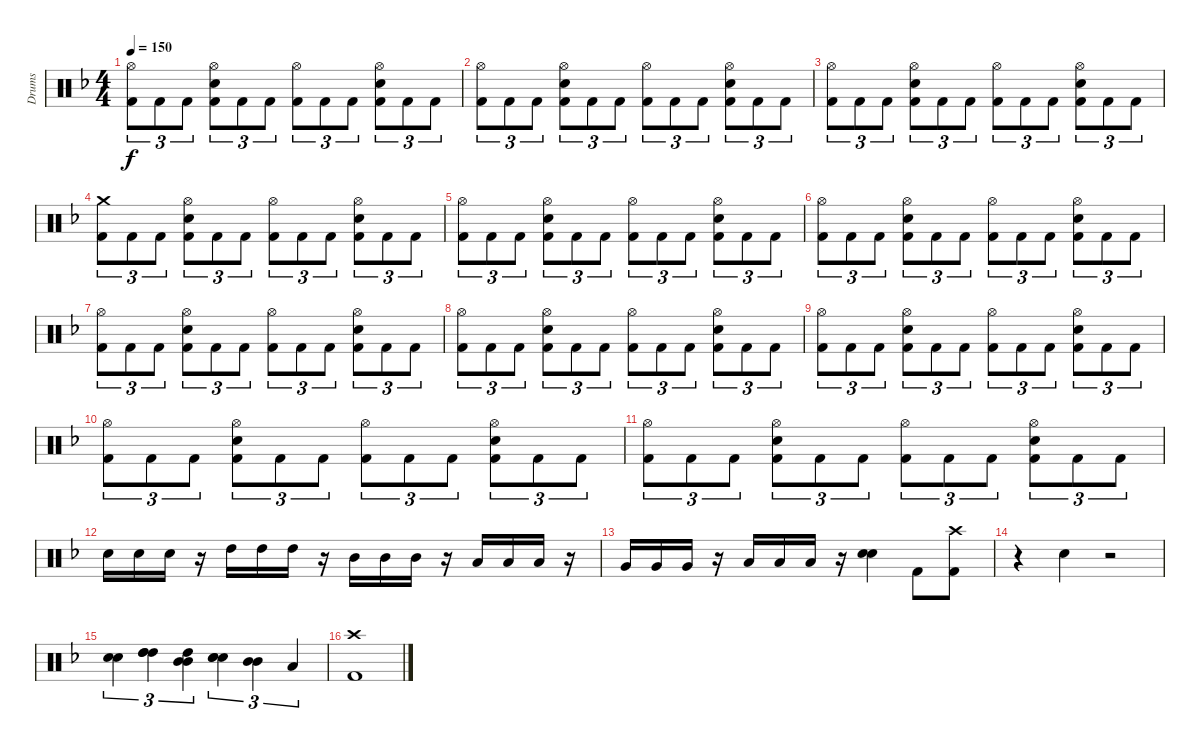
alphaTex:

\track ("Drums" "Drums") {instrument percussion}
\staff {score}
\articulation defaults
\ts (4 4)
\tempo 150
\clef neutral
\ks f
("Hi-Hat (open)" "Kick (hit) 2").8{tu (3 2) dy f} "Kick (hit) 2".8{tu (3 2)} "Kick (hit) 2".8{tu (3 2)} ("Snare (hit) 2" "Hi-Hat (open)" "Kick (hit) 2").8{tu (3 2)} "Kick (hit) 2".8{tu (3 2)} "Kick (hit) 2".8{tu (3 2)} ("Hi-Hat (open)" "Kick (hit) 2").8{tu (3 2)} "Kick (hit) 2".8{tu (3 2)} "Kick (hit) 2".8{tu (3 2)} ("Snare (hit) 2" "Hi-Hat (open)" "Kick (hit) 2").8{tu (3 2)} "Kick (hit) 2".8{tu (3 2)} "Kick (hit) 2".8{tu (3 2)} |
("Hi-Hat (open)" "Kick (hit) 2").8{tu (3 2)} "Kick (hit) 2".8{tu (3 2)} "Kick (hit) 2".8{tu (3 2)} ("Snare (hit) 2" "Hi-Hat (open)" "Kick (hit) 2").8{tu (3 2)} "Kick (hit) 2".8{tu (3 2)} "Kick (hit) 2".8{tu (3 2)} ("Hi-Hat (open)" "Kick (hit) 2").8{tu (3 2)} "Kick (hit) 2".8{tu (3 2)} "Kick (hit) 2".8{tu (3 2)} ("Snare (hit) 2" "Hi-Hat (open)" "Kick (hit) 2").8{tu (3 2)} "Kick (hit) 2".8{tu (3 2)} "Kick (hit) 2".8{tu (3 2)} |
("Hi-Hat (open)" "Kick (hit) 2").8{tu (3 2)} "Kick (hit) 2".8{tu (3 2)} "Kick (hit) 2".8{tu (3 2)} ("Snare (hit) 2" "Hi-Hat (open)" "Kick (hit) 2").8{tu (3 2)} "Kick (hit) 2".8{tu (3 2)} "Kick (hit) 2".8{tu (3 2)} ("Hi-Hat (open)" "Kick (hit) 2").8{tu (3 2)} "Kick (hit) 2".8{tu (3 2)} "Kick (hit) 2".8{tu (3 2)} ("Snare (hit) 2" "Hi-Hat (open)" "Kick (hit) 2").8{tu (3 2)} "Kick (hit) 2".8{tu (3 2)} "Kick (hit) 2".8{tu (3 2)} |
("Crash medium (hit)" "Kick (hit) 2").8{tu (3 2)} "Kick (hit) 2".8{tu (3 2)} "Kick (hit) 2".8{tu (3 2)} ("Snare (hit) 2" "Hi-Hat (open)" "Kick (hit) 2").8{tu (3 2)} "Kick (hit) 2".8{tu (3 2)} "Kick (hit) 2".8{tu (3 2)} ("Hi-Hat (open)" "Kick (hit) 2").8{tu (3 2)} "Kick (hit) 2".8{tu (3 2)} "Kick (hit) 2".8{tu (3 2)} ("Snare (hit) 2" "Hi-Hat (open)" "Kick (hit) 2").8{tu (3 2)} "Kick (hit) 2".8{tu (3 2)} "Kick (hit) 2".8{tu (3 2)} |
("Hi-Hat (open)" "Kick (hit) 2").8{tu (3 2)} "Kick (hit) 2".8{tu (3 2)} "Kick (hit) 2".8{tu (3 2)} ("Snare (hit) 2" "Hi-Hat (open)" "Kick (hit) 2").8{tu (3 2)} "Kick (hit) 2".8{tu (3 2)} "Kick (hit) 2".8{tu (3 2)} ("Hi-Hat (open)" "Kick (hit) 2").8{tu (3 2)} "Kick (hit) 2".8{tu (3 2)} "Kick (hit) 2".8{tu (3 2)} ("Snare (hit) 2" "Hi-Hat (open)" "Kick (hit) 2").8{tu (3 2)} "Kick (hit) 2".8{tu (3 2)} "Kick (hit) 2".8{tu (3 2)} |
("Hi-Hat (open)" "Kick (hit) 2").8{tu (3 2)} "Kick (hit) 2".8{tu (3 2)} "Kick (hit) 2".8{tu (3 2)} ("Snare (hit) 2" "Hi-Hat (open)" "Kick (hit) 2").8{tu (3 2)} "Kick (hit) 2".8{tu (3 2)} "Kick (hit) 2".8{tu (3 2)} ("Hi-Hat (open)" "Kick (hit) 2").8{tu (3 2)} "Kick (hit) 2".8{tu (3 2)} "Kick (hit) 2".8{tu (3 2)} ("Snare (hit) 2" "Hi-Hat (open)" "Kick (hit) 2").8{tu (3 2)} "Kick (hit) 2".8{tu (3 2)} "Kick (hit) 2".8{tu (3 2)} |
("Hi-Hat (open)" "Kick (hit) 2").8{tu (3 2)} "Kick (hit) 2".8{tu (3 2)} "Kick (hit) 2".8{tu (3 2)} ("Snare (hit) 2" "Hi-Hat (open)" "Kick (hit) 2").8{tu (3 2)} "Kick (hit) 2".8{tu (3 2)} "Kick (hit) 2".8{tu (3 2)} ("Hi-Hat (open)" "Kick (hit) 2").8{tu (3 2)} "Kick (hit) 2".8{tu (3 2)} "Kick (hit) 2".8{tu (3 2)} ("Snare (hit) 2" "Hi-Hat (open)" "Kick (hit) 2").8{tu (3 2)} "Kick (hit) 2".8{tu (3 2)} "Kick (hit) 2".8{tu (3 2)} |
("Hi-Hat (open)" "Kick (hit) 2").8{tu (3 2)} "Kick (hit) 2".8{tu (3 2)} "Kick (hit) 2".8{tu (3 2)} ("Snare (hit) 2" "Hi-Hat (open)" "Kick (hit) 2").8{tu (3 2)} "Kick (hit) 2".8{tu (3 2)} "Kick (hit) 2".8{tu (3 2)} ("Hi-Hat (open)" "Kick (hit) 2").8{tu (3 2)} "Kick (hit) 2".8{tu (3 2)} "Kick (hit) 2".8{tu (3 2)} ("Snare (hit) 2" "Hi-Hat (open)" "Kick (hit) 2").8{tu (3 2)} "Kick (hit) 2".8{tu (3 2)} "Kick (hit) 2".8{tu (3 2)} |
("Hi-Hat (open)" "Kick (hit) 2").8{tu (3 2)} "Kick (hit) 2".8{tu (3 2)} "Kick (hit) 2".8{tu (3 2)} ("Snare (hit) 2" "Hi-Hat (open)" "Kick (hit) 2").8{tu (3 2)} "Kick (hit) 2".8{tu (3 2)} "Kick (hit) 2".8{tu (3 2)} ("Hi-Hat (open)" "Kick (hit) 2").8{tu (3 2)} "Kick (hit) 2".8{tu (3 2)} "Kick (hit) 2".8{tu (3 2)} ("Snare (hit) 2" "Hi-Hat (open)" "Kick (hit) 2").8{tu (3 2)} "Kick (hit) 2".8{tu (3 2)} "Kick (hit) 2".8{tu (3 2)} |
("Hi-Hat (open)" "Kick (hit) 2").8{tu (3 2)} "Kick (hit) 2".8{tu (3 2)} "Kick (hit) 2".8{tu (3 2)} ("Snare (hit) 2" "Hi-Hat (open)" "Kick (hit) 2").8{tu (3 2)} "Kick (hit) 2".8{tu (3 2)} "Kick (hit) 2".8{tu (3 2)} ("Hi-Hat (open)" "Kick (hit) 2").8{tu (3 2)} "Kick (hit) 2".8{tu (3 2)} "Kick (hit) 2".8{tu (3 2)} ("Snare (hit) 2" "Hi-Hat (open)" "Kick (hit) 2").8{tu (3 2)} "Kick (hit) 2".8{tu (3 2)} "Kick (hit) 2".8{tu (3 2)} |
("Hi-Hat (open)" "Kick (hit) 2").8{tu (3 2)} "Kick (hit) 2".8{tu (3 2)} "Kick (hit) 2".8{tu (3 2)} ("Snare (hit) 2" "Hi-Hat (open)" "Kick (hit) 2").8{tu (3 2)} "Kick (hit) 2".8{tu (3 2)} "Kick (hit) 2".8{tu (3 2)} ("Hi-Hat (open)" "Kick (hit) 2").8{tu (3 2)} "Kick (hit) 2".8{tu (3 2)} "Kick (hit) 2".8{tu (3 2)} ("Snare (hit) 2" "Hi-Hat (open)" "Kick (hit) 2").8{tu (3 2)} "Kick (hit) 2".8{tu (3 2)} "Kick (hit) 2".8{tu (3 2)} |
"Snare (hit) 2".16 "Snare (hit) 2".16 "Snare (hit) 2".16 r.16 "High Tom (hit)".16 "High Tom (hit)".16 "High Tom (hit)".16 r.16 "Mid Tom (hit)".16 "Mid Tom (hit)".16 "Mid Tom (hit)".16 r.16 "Low Tom (hit)".16 "Low Tom (hit)".16 "Low Tom (hit)".16 r.16 |
"Very Low Tom (hit)".16 "Very Low Tom (hit)".16 "Very Low Tom (hit)".16 r.16 "Low Floor Tom (hit)".16 "Low Floor Tom (hit)".16 "Low Floor Tom (hit)".16 r.16 ("Snare (hit) 2" "Snare (hit) 2").4{bd 480} "Kick (hit) 2".8 ("Kick (hit) 2" "Crash high (hit)").8 |
r.4 "Snare (hit) 2".4 r.2 |
("Snare (hit) 2" "Snare (hit) 2").4{tu (3 2)} ("High Tom (hit)" "High Tom (hit)" "High Tom (hit)").4{tu (3 2)} ("High Tom (hit)" "Mid Tom (hit)" "Mid Tom (hit)").4{tu (3 2)} ("Snare (hit) 2" "Snare (hit) 2" "Snare (hit) 2").4{tu (3 2)} ("Mid Tom (hit)" "Mid Tom (hit)").4{tu (3 2)} "Low Tom (hit)".4{tu (3 2)} |
("Kick (hit) 2" "Crash high (hit)").1
